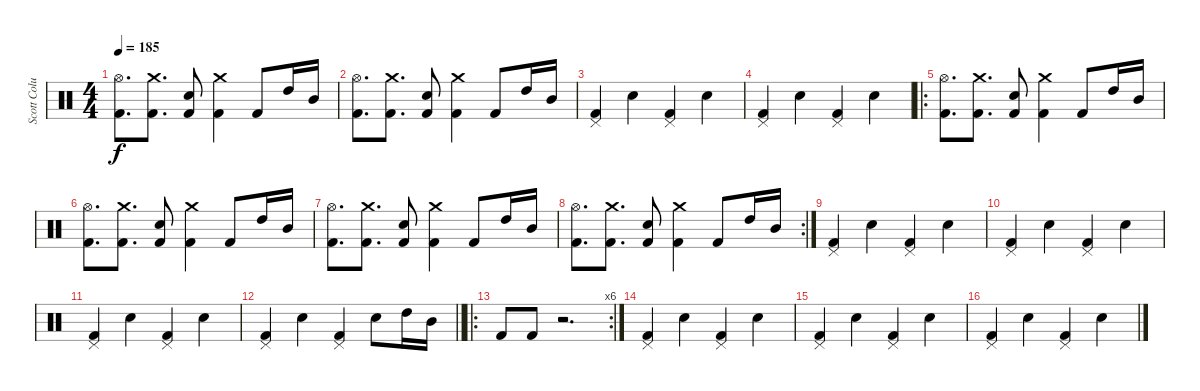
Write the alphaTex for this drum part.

\track ("Scott Columbus" "Scott Colu") {instrument percussion}
\staff {score}
\articulation defaults
\ts (4 4)
\tempo 185
\clef neutral
\ks c
("Hi-Hat (open)" "Kick (hit) 2").8{d dy f} ("Crash medium (hit)" "Kick (hit) 2").8{d} ("Snare (hit) 2" "Kick (hit) 2").8 ("Crash medium (hit)" "Kick (hit) 2").4 "Kick (hit) 2".8 "High Tom (hit)".16 "Mid Tom (hit)".16 |
("Hi-Hat (open)" "Kick (hit) 2").8{d} ("Crash medium (hit)" "Kick (hit) 2").8{d} ("Snare (hit) 2" "Kick (hit) 2").8 ("Crash medium (hit)" "Kick (hit) 2").4 "Kick (hit) 2".8 "High Tom (hit)".16 "Mid Tom (hit)".16 |
("Pedal Hi-Hat (hit)" "Kick (hit) 2").4 "Snare (hit) 2".4 ("Pedal Hi-Hat (hit)" "Kick (hit) 2").4 "Snare (hit) 2".4 |
("Pedal Hi-Hat (hit)" "Kick (hit) 2").4 "Snare (hit) 2".4 ("Pedal Hi-Hat (hit)" "Kick (hit) 2").4 "Snare (hit) 2".4 |
\ro
("Hi-Hat (open)" "Kick (hit) 2").8{d} ("Crash medium (hit)" "Kick (hit) 2").8{d} ("Snare (hit) 2" "Kick (hit) 2").8 ("Crash medium (hit)" "Kick (hit) 2").4 "Kick (hit) 2".8 "High Tom (hit)".16 "Mid Tom (hit)".16 |
("Hi-Hat (open)" "Kick (hit) 2").8{d} ("Crash medium (hit)" "Kick (hit) 2").8{d} ("Snare (hit) 2" "Kick (hit) 2").8 ("Crash medium (hit)" "Kick (hit) 2").4 "Kick (hit) 2".8 "High Tom (hit)".16 "Mid Tom (hit)".16 |
("Hi-Hat (open)" "Kick (hit) 2").8{d} ("Crash medium (hit)" "Kick (hit) 2").8{d} ("Snare (hit) 2" "Kick (hit) 2").8 ("Crash medium (hit)" "Kick (hit) 2").4 "Kick (hit) 2".8 "High Tom (hit)".16 "Mid Tom (hit)".16 |
\rc 2
("Hi-Hat (open)" "Kick (hit) 2").8{d} ("Crash medium (hit)" "Kick (hit) 2").8{d} ("Snare (hit) 2" "Kick (hit) 2").8 ("Crash medium (hit)" "Kick (hit) 2").4 "Kick (hit) 2".8 "High Tom (hit)".16 "Mid Tom (hit)".16 |
("Pedal Hi-Hat (hit)" "Kick (hit) 2").4 "Snare (hit) 2".4 ("Pedal Hi-Hat (hit)" "Kick (hit) 2").4 "Snare (hit) 2".4 |
("Pedal Hi-Hat (hit)" "Kick (hit) 2").4 "Snare (hit) 2".4 ("Pedal Hi-Hat (hit)" "Kick (hit) 2").4 "Snare (hit) 2".4 |
("Pedal Hi-Hat (hit)" "Kick (hit) 2").4 "Snare (hit) 2".4 ("Pedal Hi-Hat (hit)" "Kick (hit) 2").4 "Snare (hit) 2".4 |
\barLineRight lightlight
("Pedal Hi-Hat (hit)" "Kick (hit) 2").4 "Snare (hit) 2".4 ("Pedal Hi-Hat (hit)" "Kick (hit) 2").4 "Snare (hit) 2".8 "High Tom (hit)".16 "Mid Tom (hit)".16 |
\ro
\rc 6 "Kick (hit) 2".8 "Kick (hit) 2".8
r.2{d} |
("Pedal Hi-Hat (hit)" "Kick (hit) 2").4 "Snare (hit) 2".4 ("Pedal Hi-Hat (hit)" "Kick (hit) 2").4 "Snare (hit) 2".4 |
("Pedal Hi-Hat (hit)" "Kick (hit) 2").4 "Snare (hit) 2".4 ("Pedal Hi-Hat (hit)" "Kick (hit) 2").4 "Snare (hit) 2".4 |
("Pedal Hi-Hat (hit)" "Kick (hit) 2").4 "Snare (hit) 2".4 ("Pedal Hi-Hat (hit)" "Kick (hit) 2").4 "Snare (hit) 2".4
